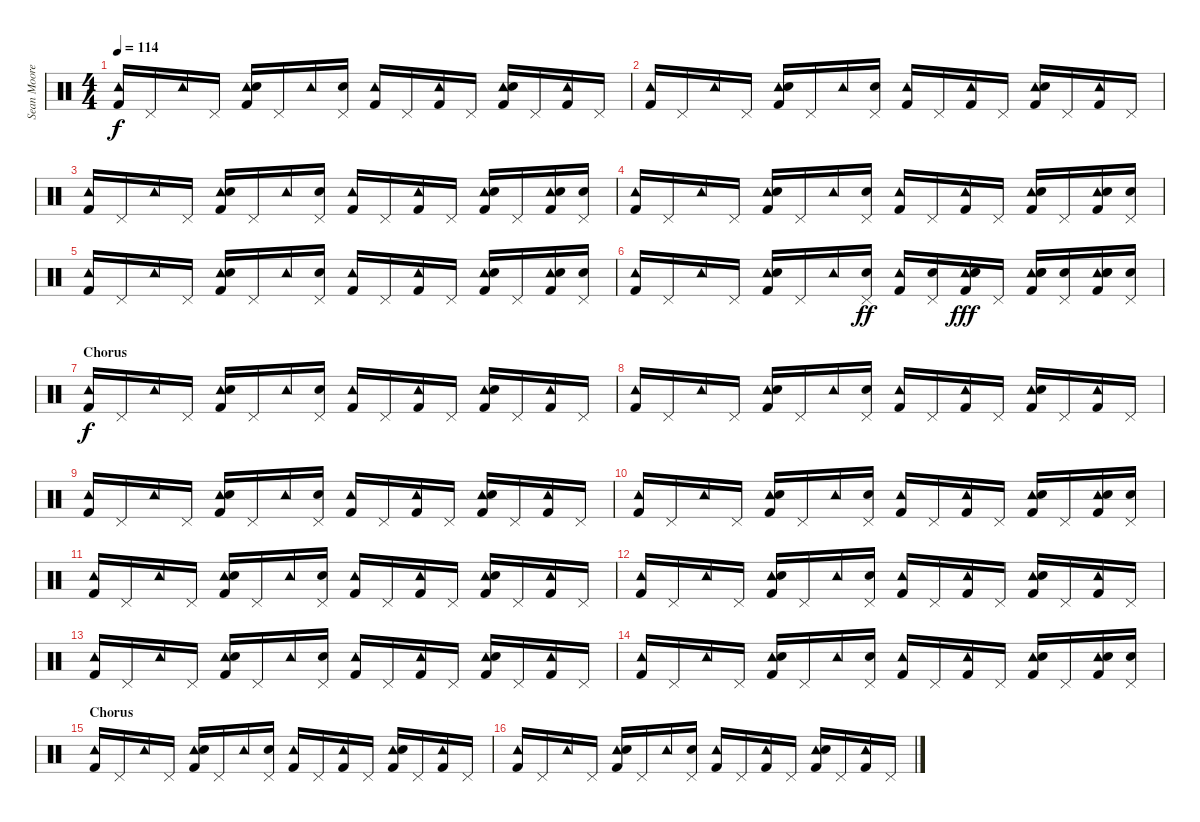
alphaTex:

\track ("Sean Moore" "Sean Moore") {instrument percussion}
\staff {score}
\articulation defaults
\ts (4 4)
\tempo 114
\clef neutral
\ks c
("Tambourine (hit)" "Kick (hit) 2").16{dy f} "Pedal Hi-Hat (hit)".16 "Tambourine (hit)".16 "Pedal Hi-Hat (hit)".16 ("Tambourine (hit)" "Snare (hit) 2" "Kick (hit) 2").16 "Pedal Hi-Hat (hit)".16 "Tambourine (hit)".16 ("Snare (hit) 2" "Pedal Hi-Hat (hit)").16 ("Tambourine (hit)" "Kick (hit) 2").16 "Pedal Hi-Hat (hit)".16 ("Tambourine (hit)" "Kick (hit) 2").16 "Pedal Hi-Hat (hit)".16 ("Tambourine (hit)" "Snare (hit) 2" "Kick (hit) 2").16 "Pedal Hi-Hat (hit)".16 ("Tambourine (hit)" "Kick (hit) 2").16 "Pedal Hi-Hat (hit)".16 |
("Tambourine (hit)" "Kick (hit) 2").16 "Pedal Hi-Hat (hit)".16 "Tambourine (hit)".16 "Pedal Hi-Hat (hit)".16 ("Tambourine (hit)" "Snare (hit) 2" "Kick (hit) 2").16 "Pedal Hi-Hat (hit)".16 "Tambourine (hit)".16 ("Snare (hit) 2" "Pedal Hi-Hat (hit)").16 ("Tambourine (hit)" "Kick (hit) 2").16 "Pedal Hi-Hat (hit)".16 ("Tambourine (hit)" "Kick (hit) 2").16 "Pedal Hi-Hat (hit)".16 ("Tambourine (hit)" "Snare (hit) 2" "Kick (hit) 2").16 "Pedal Hi-Hat (hit)".16 ("Tambourine (hit)" "Kick (hit) 2").16 "Pedal Hi-Hat (hit)".16 |
("Tambourine (hit)" "Kick (hit) 2").16 "Pedal Hi-Hat (hit)".16 "Tambourine (hit)".16 "Pedal Hi-Hat (hit)".16 ("Tambourine (hit)" "Snare (hit) 2" "Kick (hit) 2").16 "Pedal Hi-Hat (hit)".16 "Tambourine (hit)".16 ("Snare (hit) 2" "Pedal Hi-Hat (hit)").16 ("Tambourine (hit)" "Kick (hit) 2").16 "Pedal Hi-Hat (hit)".16 ("Tambourine (hit)" "Kick (hit) 2").16 "Pedal Hi-Hat (hit)".16 ("Tambourine (hit)" "Snare (hit) 2" "Kick (hit) 2").16 "Pedal Hi-Hat (hit)".16 ("Tambourine (hit)" "Snare (hit) 2" "Kick (hit) 2").16 ("Snare (hit) 2" "Pedal Hi-Hat (hit)").16 |
("Tambourine (hit)" "Kick (hit) 2").16 "Pedal Hi-Hat (hit)".16 "Tambourine (hit)".16 "Pedal Hi-Hat (hit)".16 ("Tambourine (hit)" "Snare (hit) 2" "Kick (hit) 2").16 "Pedal Hi-Hat (hit)".16 "Tambourine (hit)".16 ("Snare (hit) 2" "Pedal Hi-Hat (hit)").16 ("Tambourine (hit)" "Kick (hit) 2").16 "Pedal Hi-Hat (hit)".16 ("Tambourine (hit)" "Kick (hit) 2").16 "Pedal Hi-Hat (hit)".16 ("Tambourine (hit)" "Snare (hit) 2" "Kick (hit) 2").16 "Pedal Hi-Hat (hit)".16 ("Tambourine (hit)" "Snare (hit) 2" "Kick (hit) 2").16 ("Snare (hit) 2" "Pedal Hi-Hat (hit)").16 |
("Tambourine (hit)" "Kick (hit) 2").16 "Pedal Hi-Hat (hit)".16 "Tambourine (hit)".16 "Pedal Hi-Hat (hit)".16 ("Tambourine (hit)" "Snare (hit) 2" "Kick (hit) 2").16 "Pedal Hi-Hat (hit)".16 "Tambourine (hit)".16 ("Snare (hit) 2" "Pedal Hi-Hat (hit)").16 ("Tambourine (hit)" "Kick (hit) 2").16 "Pedal Hi-Hat (hit)".16 ("Tambourine (hit)" "Kick (hit) 2").16 "Pedal Hi-Hat (hit)".16 ("Tambourine (hit)" "Snare (hit) 2" "Kick (hit) 2").16 "Pedal Hi-Hat (hit)".16 ("Tambourine (hit)" "Snare (hit) 2" "Kick (hit) 2").16 ("Snare (hit) 2" "Pedal Hi-Hat (hit)").16 |
("Tambourine (hit)" "Kick (hit) 2").16 "Pedal Hi-Hat (hit)".16 "Tambourine (hit)".16 "Pedal Hi-Hat (hit)".16 ("Tambourine (hit)" "Snare (hit) 2" "Kick (hit) 2").16{volume 15} "Pedal Hi-Hat (hit)".16 "Tambourine (hit)".16 ("Snare (hit) 2" "Pedal Hi-Hat (hit)").16{dy ff} ("Tambourine (hit)" "Kick (hit) 2").16 ("Snare (hit) 2" "Pedal Hi-Hat (hit)").16 ("Tambourine (hit)" "Snare (hit) 2" "Electric Snare (hit)" "Kick (hit) 2").16{dy fff} "Pedal Hi-Hat (hit)".16 ("Tambourine (hit)" "Snare (hit) 2" "Electric Snare (hit)" "Kick (hit) 2").16 ("Snare (hit) 2" "Pedal Hi-Hat (hit)").16 ("Tambourine (hit)" "Snare (hit) 2" "Electric Snare (hit)" "Kick (hit) 2").16 ("Snare (hit) 2" "Pedal Hi-Hat (hit)").16 |
\section ("" "Chorus")
("Tambourine (hit)" "Kick (hit) 2").16{dy f} "Pedal Hi-Hat (hit)".16 "Tambourine (hit)".16 "Pedal Hi-Hat (hit)".16 ("Tambourine (hit)" "Snare (hit) 2" "Kick (hit) 2").16 "Pedal Hi-Hat (hit)".16 "Tambourine (hit)".16 ("Snare (hit) 2" "Pedal Hi-Hat (hit)").16 ("Tambourine (hit)" "Kick (hit) 2").16 "Pedal Hi-Hat (hit)".16 ("Tambourine (hit)" "Kick (hit) 2").16 "Pedal Hi-Hat (hit)".16 ("Tambourine (hit)" "Snare (hit) 2" "Kick (hit) 2").16 "Pedal Hi-Hat (hit)".16 ("Tambourine (hit)" "Kick (hit) 2").16 "Pedal Hi-Hat (hit)".16 |
("Tambourine (hit)" "Kick (hit) 2").16 "Pedal Hi-Hat (hit)".16 "Tambourine (hit)".16 "Pedal Hi-Hat (hit)".16 ("Tambourine (hit)" "Snare (hit) 2" "Kick (hit) 2").16 "Pedal Hi-Hat (hit)".16 "Tambourine (hit)".16 ("Snare (hit) 2" "Pedal Hi-Hat (hit)").16 ("Tambourine (hit)" "Kick (hit) 2").16 "Pedal Hi-Hat (hit)".16 ("Tambourine (hit)" "Kick (hit) 2").16 "Pedal Hi-Hat (hit)".16 ("Tambourine (hit)" "Snare (hit) 2" "Kick (hit) 2").16 "Pedal Hi-Hat (hit)".16 ("Tambourine (hit)" "Kick (hit) 2").16 "Pedal Hi-Hat (hit)".16 |
("Tambourine (hit)" "Kick (hit) 2").16 "Pedal Hi-Hat (hit)".16 "Tambourine (hit)".16 "Pedal Hi-Hat (hit)".16 ("Tambourine (hit)" "Snare (hit) 2" "Kick (hit) 2").16 "Pedal Hi-Hat (hit)".16 "Tambourine (hit)".16 ("Snare (hit) 2" "Pedal Hi-Hat (hit)").16 ("Tambourine (hit)" "Kick (hit) 2").16 "Pedal Hi-Hat (hit)".16 ("Tambourine (hit)" "Kick (hit) 2").16 "Pedal Hi-Hat (hit)".16 ("Tambourine (hit)" "Snare (hit) 2" "Kick (hit) 2").16 "Pedal Hi-Hat (hit)".16 ("Tambourine (hit)" "Kick (hit) 2").16 "Pedal Hi-Hat (hit)".16 |
("Tambourine (hit)" "Kick (hit) 2").16 "Pedal Hi-Hat (hit)".16 "Tambourine (hit)".16 "Pedal Hi-Hat (hit)".16 ("Tambourine (hit)" "Snare (hit) 2" "Kick (hit) 2").16 "Pedal Hi-Hat (hit)".16 "Tambourine (hit)".16 ("Snare (hit) 2" "Pedal Hi-Hat (hit)").16 ("Tambourine (hit)" "Kick (hit) 2").16 "Pedal Hi-Hat (hit)".16 ("Tambourine (hit)" "Kick (hit) 2").16 "Pedal Hi-Hat (hit)".16 ("Tambourine (hit)" "Snare (hit) 2" "Kick (hit) 2").16 "Pedal Hi-Hat (hit)".16 ("Tambourine (hit)" "Snare (hit) 2" "Kick (hit) 2").16 ("Snare (hit) 2" "Pedal Hi-Hat (hit)").16 |
("Tambourine (hit)" "Kick (hit) 2").16 "Pedal Hi-Hat (hit)".16 "Tambourine (hit)".16 "Pedal Hi-Hat (hit)".16 ("Tambourine (hit)" "Snare (hit) 2" "Kick (hit) 2").16 "Pedal Hi-Hat (hit)".16 "Tambourine (hit)".16 ("Snare (hit) 2" "Pedal Hi-Hat (hit)").16 ("Tambourine (hit)" "Kick (hit) 2").16 "Pedal Hi-Hat (hit)".16 ("Tambourine (hit)" "Kick (hit) 2").16 "Pedal Hi-Hat (hit)".16 ("Tambourine (hit)" "Snare (hit) 2" "Kick (hit) 2").16 "Pedal Hi-Hat (hit)".16 ("Tambourine (hit)" "Kick (hit) 2").16 "Pedal Hi-Hat (hit)".16 |
("Tambourine (hit)" "Kick (hit) 2").16 "Pedal Hi-Hat (hit)".16 "Tambourine (hit)".16 "Pedal Hi-Hat (hit)".16 ("Tambourine (hit)" "Snare (hit) 2" "Kick (hit) 2").16 "Pedal Hi-Hat (hit)".16 "Tambourine (hit)".16 ("Snare (hit) 2" "Pedal Hi-Hat (hit)").16 ("Tambourine (hit)" "Kick (hit) 2").16 "Pedal Hi-Hat (hit)".16 ("Tambourine (hit)" "Kick (hit) 2").16 "Pedal Hi-Hat (hit)".16 ("Tambourine (hit)" "Snare (hit) 2" "Kick (hit) 2").16 "Pedal Hi-Hat (hit)".16 ("Tambourine (hit)" "Kick (hit) 2").16 "Pedal Hi-Hat (hit)".16 |
("Tambourine (hit)" "Kick (hit) 2").16 "Pedal Hi-Hat (hit)".16 "Tambourine (hit)".16 "Pedal Hi-Hat (hit)".16 ("Tambourine (hit)" "Snare (hit) 2" "Kick (hit) 2").16 "Pedal Hi-Hat (hit)".16 "Tambourine (hit)".16 ("Snare (hit) 2" "Pedal Hi-Hat (hit)").16 ("Tambourine (hit)" "Kick (hit) 2").16 "Pedal Hi-Hat (hit)".16 ("Tambourine (hit)" "Kick (hit) 2").16 "Pedal Hi-Hat (hit)".16 ("Tambourine (hit)" "Snare (hit) 2" "Kick (hit) 2").16 "Pedal Hi-Hat (hit)".16 ("Tambourine (hit)" "Kick (hit) 2").16 "Pedal Hi-Hat (hit)".16 |
("Tambourine (hit)" "Kick (hit) 2").16 "Pedal Hi-Hat (hit)".16 "Tambourine (hit)".16 "Pedal Hi-Hat (hit)".16 ("Tambourine (hit)" "Snare (hit) 2" "Kick (hit) 2").16 "Pedal Hi-Hat (hit)".16 "Tambourine (hit)".16 ("Snare (hit) 2" "Pedal Hi-Hat (hit)").16 ("Tambourine (hit)" "Kick (hit) 2").16 "Pedal Hi-Hat (hit)".16 ("Tambourine (hit)" "Kick (hit) 2").16 "Pedal Hi-Hat (hit)".16 ("Tambourine (hit)" "Snare (hit) 2" "Kick (hit) 2").16 "Pedal Hi-Hat (hit)".16 ("Tambourine (hit)" "Snare (hit) 2" "Kick (hit) 2").16 ("Snare (hit) 2" "Pedal Hi-Hat (hit)").16 |
\section ("" "Chorus")
("Tambourine (hit)" "Kick (hit) 2").16 "Pedal Hi-Hat (hit)".16 "Tambourine (hit)".16 "Pedal Hi-Hat (hit)".16 ("Tambourine (hit)" "Snare (hit) 2" "Kick (hit) 2").16 "Pedal Hi-Hat (hit)".16 "Tambourine (hit)".16 ("Snare (hit) 2" "Pedal Hi-Hat (hit)").16 ("Tambourine (hit)" "Kick (hit) 2").16 "Pedal Hi-Hat (hit)".16 ("Tambourine (hit)" "Kick (hit) 2").16 "Pedal Hi-Hat (hit)".16 ("Tambourine (hit)" "Snare (hit) 2" "Kick (hit) 2").16 "Pedal Hi-Hat (hit)".16 ("Tambourine (hit)" "Kick (hit) 2").16 "Pedal Hi-Hat (hit)".16 |
("Tambourine (hit)" "Kick (hit) 2").16 "Pedal Hi-Hat (hit)".16 "Tambourine (hit)".16 "Pedal Hi-Hat (hit)".16 ("Tambourine (hit)" "Snare (hit) 2" "Kick (hit) 2").16 "Pedal Hi-Hat (hit)".16 "Tambourine (hit)".16 ("Snare (hit) 2" "Pedal Hi-Hat (hit)").16 ("Tambourine (hit)" "Kick (hit) 2").16 "Pedal Hi-Hat (hit)".16 ("Tambourine (hit)" "Kick (hit) 2").16 "Pedal Hi-Hat (hit)".16 ("Tambourine (hit)" "Snare (hit) 2" "Kick (hit) 2").16 "Pedal Hi-Hat (hit)".16 ("Tambourine (hit)" "Kick (hit) 2").16 "Pedal Hi-Hat (hit)".16
